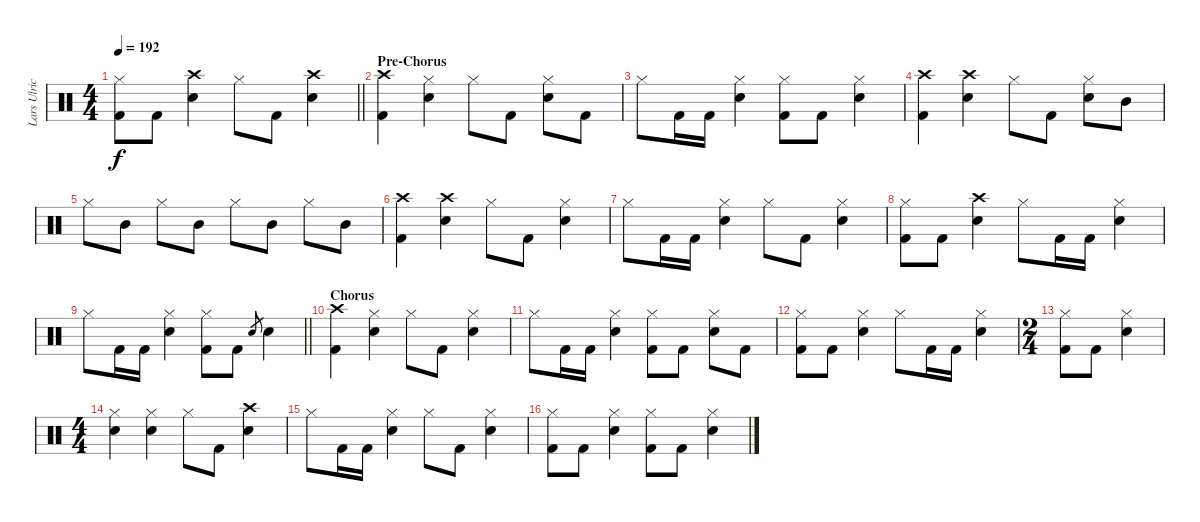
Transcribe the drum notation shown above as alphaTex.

\track ("Lars Ulrich - Drums" "Lars Ulric") {instrument percussion}
\staff {score}
\articulation defaults
\ts (4 4)
\tempo 192
\clef neutral
\barLineRight lightlight
\ks c
("Hi-Hat (closed)" "Kick (hit) 2").8{dy f} "Kick (hit) 2".8 ("Crash high (hit)" "Snare (hit) 2").4 "Hi-Hat (closed)".8 "Kick (hit) 2".8 ("Crash high (hit)" "Snare (hit) 2").4 |
\section ("" "Pre-Chorus")
("Crash high (hit)" "Kick (hit) 2").4 ("Hi-Hat (closed)" "Snare (hit) 2").4 "Hi-Hat (closed)".8 "Kick (hit) 2".8 ("Hi-Hat (closed)" "Snare (hit) 2").8 "Kick (hit) 2".8 |
"Hi-Hat (closed)".8 "Kick (hit) 2".16 "Kick (hit) 2".16 ("Hi-Hat (closed)" "Snare (hit) 2").4 ("Hi-Hat (closed)" "Kick (hit) 2").8 "Kick (hit) 2".8 ("Hi-Hat (closed)" "Snare (hit) 2").4 |
("Crash high (hit)" "Kick (hit) 2").4 ("Crash high (hit)" "Snare (hit) 2").4 "Hi-Hat (closed)".8 "Kick (hit) 2".8 ("Hi-Hat (closed)" "Snare (hit) 2").8 "Mid Tom (hit)".8 |
"Hi-Hat (closed)".8 "Mid Tom (hit)".8 "Hi-Hat (closed)".8 "Mid Tom (hit)".8 "Hi-Hat (closed)".8 "Mid Tom (hit)".8 "Hi-Hat (closed)".8 "Mid Tom (hit)".8 |
("Crash high (hit)" "Kick (hit) 2").4 ("Crash high (hit)" "Snare (hit) 2").4 "Hi-Hat (closed)".8 "Kick (hit) 2".8 ("Hi-Hat (closed)" "Snare (hit) 2").4 |
"Hi-Hat (closed)".8 "Kick (hit) 2".16 "Kick (hit) 2".16 ("Hi-Hat (closed)" "Snare (hit) 2").4 "Hi-Hat (closed)".8 "Kick (hit) 2".8 ("Hi-Hat (closed)" "Snare (hit) 2").4 |
("Hi-Hat (closed)" "Kick (hit) 2").8 "Kick (hit) 2".8 ("Crash high (hit)" "Snare (hit) 2").4 "Hi-Hat (closed)".8 "Kick (hit) 2".16 "Kick (hit) 2".16 ("Hi-Hat (closed)" "Snare (hit) 2").4 |
\barLineRight lightlight "Hi-Hat (closed)".8 "Kick (hit) 2".16 "Kick (hit) 2".16
("Hi-Hat (closed)" "Snare (hit) 2").4 ("Hi-Hat (closed)" "Kick (hit) 2").8 "Kick (hit) 2".8 "Snare (hit) 2".8{gr} "Snare (hit) 2".4 |
\section ("" "Chorus")
("Crash high (hit)" "Kick (hit) 2").4 ("Hi-Hat (closed)" "Snare (hit) 2").4 "Hi-Hat (closed)".8 "Kick (hit) 2".8 ("Hi-Hat (closed)" "Snare (hit) 2").4 |
"Hi-Hat (closed)".8 "Kick (hit) 2".16 "Kick (hit) 2".16 ("Hi-Hat (closed)" "Snare (hit) 2").4 ("Hi-Hat (closed)" "Kick (hit) 2").8 "Kick (hit) 2".8 ("Hi-Hat (closed)" "Snare (hit) 2").8 "Kick (hit) 2".8 |
("Hi-Hat (closed)" "Kick (hit) 2").8 "Kick (hit) 2".8 ("Hi-Hat (closed)" "Snare (hit) 2").4 "Hi-Hat (closed)".8 "Kick (hit) 2".16 "Kick (hit) 2".16 ("Hi-Hat (closed)" "Snare (hit) 2").4 |
\ts (2 4)
("Hi-Hat (closed)" "Kick (hit) 2").8 "Kick (hit) 2".8 ("Hi-Hat (closed)" "Snare (hit) 2").4 |
\ts (4 4)
("Hi-Hat (closed)" "Snare (hit) 2").4 ("Hi-Hat (closed)" "Snare (hit) 2").4 "Hi-Hat (closed)".8 "Kick (hit) 2".8 ("Crash high (hit)" "Snare (hit) 2").4 |
"Hi-Hat (closed)".8 "Kick (hit) 2".16 "Kick (hit) 2".16 ("Hi-Hat (closed)" "Snare (hit) 2").4 "Hi-Hat (closed)".8 "Kick (hit) 2".8 ("Hi-Hat (closed)" "Snare (hit) 2").4 |
("Hi-Hat (closed)" "Kick (hit) 2").8 "Kick (hit) 2".8 ("Hi-Hat (closed)" "Snare (hit) 2").4 ("Hi-Hat (closed)" "Kick (hit) 2").8 "Kick (hit) 2".8 ("Hi-Hat (closed)" "Snare (hit) 2").4
